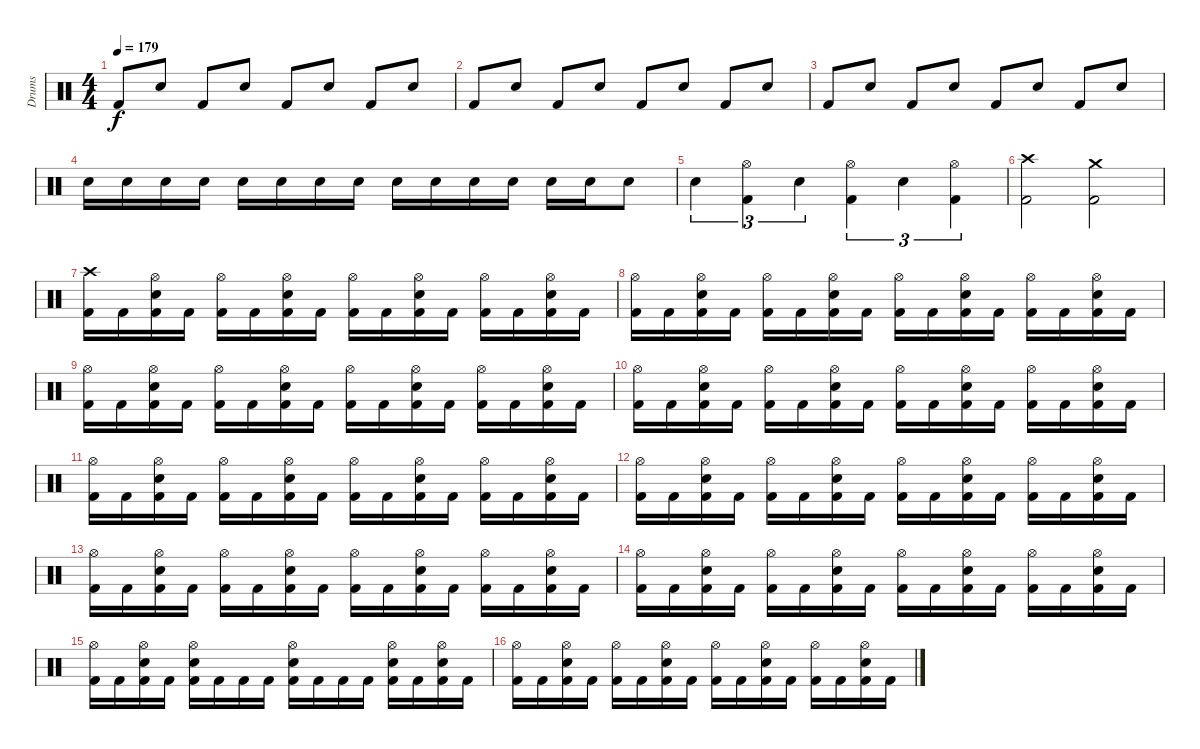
\track ("Drums" "Drums") {instrument percussion}
\staff {score}
\articulation defaults
\ts (4 4)
\tempo 179
\clef neutral
\ks c "Kick (hit) 2".8{dy f} "Electric Snare (hit)".8 "Kick (hit) 2".8 "Electric Snare (hit)".8 "Kick (hit) 2".8 "Electric Snare (hit)".8 "Kick (hit) 2".8 "Electric Snare (hit)".8
|
"Kick (hit) 2".8 "Electric Snare (hit)".8 "Kick (hit) 2".8 "Electric Snare (hit)".8 "Kick (hit) 2".8 "Electric Snare (hit)".8 "Kick (hit) 2".8 "Electric Snare (hit)".8 |
"Kick (hit) 2".8 "Electric Snare (hit)".8 "Kick (hit) 2".8 "Electric Snare (hit)".8 "Kick (hit) 2".8 "Electric Snare (hit)".8 "Kick (hit) 2".8 "Electric Snare (hit)".8 |
"Electric Snare (hit)".16 "Electric Snare (hit)".16 "Electric Snare (hit)".16 "Electric Snare (hit)".16 "Electric Snare (hit)".16 "Electric Snare (hit)".16 "Electric Snare (hit)".16 "Electric Snare (hit)".16 "Electric Snare (hit)".16 "Electric Snare (hit)".16 "Electric Snare (hit)".16 "Electric Snare (hit)".16 "Electric Snare (hit)".16 "Electric Snare (hit)".16 "Electric Snare (hit)".8 |
"Electric Snare (hit)".4{tu (3 2)} ("Hi-Hat (open)" "Kick (hit) 2").4{tu (3 2)} "Electric Snare (hit)".4{tu (3 2)} ("Hi-Hat (open)" "Kick (hit) 2").4{tu (3 2)} "Electric Snare (hit)".4{tu (3 2)} ("Hi-Hat (open)" "Kick (hit) 2").4{tu (3 2)} |
("Crash high (hit)" "Kick (hit) 2").2 ("Crash medium (hit)" "Kick (hit) 2").2 |
("Crash high (hit)" "Kick (hit) 2").16 "Kick (hit) 2".16 ("Hi-Hat (open)" "Electric Snare (hit)" "Kick (hit) 2").16 "Kick (hit) 2".16 ("Hi-Hat (open)" "Kick (hit) 2").16 "Kick (hit) 2".16 ("Hi-Hat (open)" "Electric Snare (hit)" "Kick (hit) 2").16 "Kick (hit) 2".16 ("Hi-Hat (open)" "Kick (hit) 2").16 "Kick (hit) 2".16 ("Hi-Hat (open)" "Electric Snare (hit)" "Kick (hit) 2").16 "Kick (hit) 2".16 ("Hi-Hat (open)" "Kick (hit) 2").16 "Kick (hit) 2".16 ("Hi-Hat (open)" "Electric Snare (hit)" "Kick (hit) 2").16 "Kick (hit) 2".16 |
("Hi-Hat (open)" "Kick (hit) 2").16 "Kick (hit) 2".16 ("Hi-Hat (open)" "Electric Snare (hit)" "Kick (hit) 2").16 "Kick (hit) 2".16 ("Hi-Hat (open)" "Kick (hit) 2").16 "Kick (hit) 2".16 ("Hi-Hat (open)" "Electric Snare (hit)" "Kick (hit) 2").16 "Kick (hit) 2".16 ("Hi-Hat (open)" "Kick (hit) 2").16 "Kick (hit) 2".16 ("Hi-Hat (open)" "Electric Snare (hit)" "Kick (hit) 2").16 "Kick (hit) 2".16 ("Hi-Hat (open)" "Kick (hit) 2").16 "Kick (hit) 2".16 ("Hi-Hat (open)" "Electric Snare (hit)" "Kick (hit) 2").16 "Kick (hit) 2".16 |
("Hi-Hat (open)" "Kick (hit) 2").16 "Kick (hit) 2".16 ("Hi-Hat (open)" "Electric Snare (hit)" "Kick (hit) 2").16 "Kick (hit) 2".16 ("Hi-Hat (open)" "Kick (hit) 2").16 "Kick (hit) 2".16 ("Hi-Hat (open)" "Electric Snare (hit)" "Kick (hit) 2").16 "Kick (hit) 2".16 ("Hi-Hat (open)" "Kick (hit) 2").16 "Kick (hit) 2".16 ("Hi-Hat (open)" "Electric Snare (hit)" "Kick (hit) 2").16 "Kick (hit) 2".16 ("Hi-Hat (open)" "Kick (hit) 2").16 "Kick (hit) 2".16 ("Hi-Hat (open)" "Electric Snare (hit)" "Kick (hit) 2").16 "Kick (hit) 2".16 |
("Hi-Hat (open)" "Kick (hit) 2").16 "Kick (hit) 2".16 ("Hi-Hat (open)" "Electric Snare (hit)" "Kick (hit) 2").16 "Kick (hit) 2".16 ("Hi-Hat (open)" "Kick (hit) 2").16 "Kick (hit) 2".16 ("Hi-Hat (open)" "Electric Snare (hit)" "Kick (hit) 2").16 "Kick (hit) 2".16 ("Hi-Hat (open)" "Kick (hit) 2").16 "Kick (hit) 2".16 ("Hi-Hat (open)" "Electric Snare (hit)" "Kick (hit) 2").16 "Kick (hit) 2".16 ("Hi-Hat (open)" "Kick (hit) 2").16 "Kick (hit) 2".16 ("Hi-Hat (open)" "Electric Snare (hit)" "Kick (hit) 2").16 "Kick (hit) 2".16 |
("Hi-Hat (open)" "Kick (hit) 2").16 "Kick (hit) 2".16 ("Hi-Hat (open)" "Electric Snare (hit)" "Kick (hit) 2").16 "Kick (hit) 2".16 ("Hi-Hat (open)" "Kick (hit) 2").16 "Kick (hit) 2".16 ("Hi-Hat (open)" "Electric Snare (hit)" "Kick (hit) 2").16 "Kick (hit) 2".16 ("Hi-Hat (open)" "Kick (hit) 2").16 "Kick (hit) 2".16 ("Hi-Hat (open)" "Electric Snare (hit)" "Kick (hit) 2").16 "Kick (hit) 2".16 ("Hi-Hat (open)" "Kick (hit) 2").16 "Kick (hit) 2".16 ("Hi-Hat (open)" "Electric Snare (hit)" "Kick (hit) 2").16 "Kick (hit) 2".16 |
("Hi-Hat (open)" "Kick (hit) 2").16 "Kick (hit) 2".16 ("Hi-Hat (open)" "Electric Snare (hit)" "Kick (hit) 2").16 "Kick (hit) 2".16 ("Hi-Hat (open)" "Kick (hit) 2").16 "Kick (hit) 2".16 ("Hi-Hat (open)" "Electric Snare (hit)" "Kick (hit) 2").16 "Kick (hit) 2".16 ("Hi-Hat (open)" "Kick (hit) 2").16 "Kick (hit) 2".16 ("Hi-Hat (open)" "Electric Snare (hit)" "Kick (hit) 2").16 "Kick (hit) 2".16 ("Hi-Hat (open)" "Kick (hit) 2").16 "Kick (hit) 2".16 ("Hi-Hat (open)" "Electric Snare (hit)" "Kick (hit) 2").16 "Kick (hit) 2".16 |
("Hi-Hat (open)" "Kick (hit) 2").16 "Kick (hit) 2".16 ("Hi-Hat (open)" "Electric Snare (hit)" "Kick (hit) 2").16 "Kick (hit) 2".16 ("Hi-Hat (open)" "Kick (hit) 2").16 "Kick (hit) 2".16 ("Hi-Hat (open)" "Electric Snare (hit)" "Kick (hit) 2").16 "Kick (hit) 2".16 ("Hi-Hat (open)" "Kick (hit) 2").16 "Kick (hit) 2".16 ("Hi-Hat (open)" "Electric Snare (hit)" "Kick (hit) 2").16 "Kick (hit) 2".16 ("Hi-Hat (open)" "Kick (hit) 2").16 "Kick (hit) 2".16 ("Hi-Hat (open)" "Electric Snare (hit)" "Kick (hit) 2").16 "Kick (hit) 2".16 |
("Hi-Hat (open)" "Kick (hit) 2").16 "Kick (hit) 2".16 ("Hi-Hat (open)" "Electric Snare (hit)" "Kick (hit) 2").16 "Kick (hit) 2".16 ("Hi-Hat (open)" "Kick (hit) 2").16 "Kick (hit) 2".16 ("Hi-Hat (open)" "Electric Snare (hit)" "Kick (hit) 2").16 "Kick (hit) 2".16 ("Hi-Hat (open)" "Kick (hit) 2").16 "Kick (hit) 2".16 ("Hi-Hat (open)" "Electric Snare (hit)" "Kick (hit) 2").16 "Kick (hit) 2".16 ("Hi-Hat (open)" "Kick (hit) 2").16 "Kick (hit) 2".16 ("Hi-Hat (open)" "Electric Snare (hit)" "Kick (hit) 2").16 "Kick (hit) 2".16 |
("Hi-Hat (open)" "Kick (hit) 2").16 "Kick (hit) 2".16 ("Hi-Hat (open)" "Electric Snare (hit)" "Kick (hit) 2").16 "Kick (hit) 2".16 ("Hi-Hat (open)" "Electric Snare (hit)" "Kick (hit) 2").16 "Kick (hit) 2".16 "Kick (hit) 2".16 "Kick (hit) 2".16 ("Hi-Hat (open)" "Electric Snare (hit)" "Kick (hit) 2").16 "Kick (hit) 2".16 "Kick (hit) 2".16 "Kick (hit) 2".16 ("Hi-Hat (open)" "Electric Snare (hit)" "Kick (hit) 2").16 "Kick (hit) 2".16 ("Hi-Hat (open)" "Electric Snare (hit)" "Kick (hit) 2").16 "Kick (hit) 2".16 |
("Hi-Hat (open)" "Kick (hit) 2").16 "Kick (hit) 2".16 ("Hi-Hat (open)" "Electric Snare (hit)" "Kick (hit) 2").16 "Kick (hit) 2".16 ("Hi-Hat (open)" "Kick (hit) 2").16 "Kick (hit) 2".16 ("Hi-Hat (open)" "Electric Snare (hit)" "Kick (hit) 2").16 "Kick (hit) 2".16 ("Hi-Hat (open)" "Kick (hit) 2").16 "Kick (hit) 2".16 ("Hi-Hat (open)" "Electric Snare (hit)" "Kick (hit) 2").16 "Kick (hit) 2".16 ("Hi-Hat (open)" "Kick (hit) 2").16 "Kick (hit) 2".16 ("Hi-Hat (open)" "Electric Snare (hit)" "Kick (hit) 2").16 "Kick (hit) 2".16
